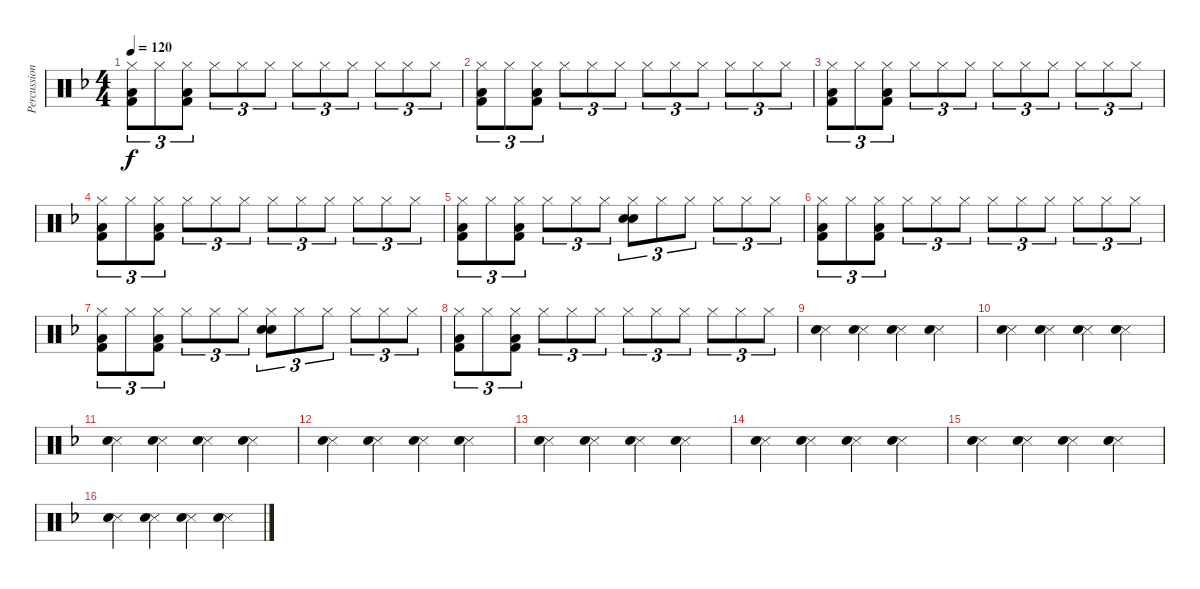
\track ("Percussion" "Percussion") {instrument percussion}
\staff {score}
\articulation defaults
\ts (4 4)
\tempo 120
\clef neutral
\ks dminor
("Hi-Hat (closed)" "Low Floor Tom (hit)" "Kick (hit) 2").8{tu (3 2) dy f} "Hi-Hat (closed)".8{tu (3 2)} ("Hi-Hat (closed)" "Low Floor Tom (hit)" "Kick (hit) 2").8{tu (3 2)} "Hi-Hat (closed)".8{tu (3 2)} "Hi-Hat (closed)".8{tu (3 2)} "Hi-Hat (closed)".8{tu (3 2)} "Hi-Hat (closed)".8{tu (3 2)} "Hi-Hat (closed)".8{tu (3 2)} "Hi-Hat (closed)".8{tu (3 2)} "Hi-Hat (closed)".8{tu (3 2)} "Hi-Hat (closed)".8{tu (3 2)} "Hi-Hat (closed)".8{tu (3 2)} |
("Hi-Hat (closed)" "Low Floor Tom (hit)" "Kick (hit) 2").8{tu (3 2)} "Hi-Hat (closed)".8{tu (3 2)} ("Hi-Hat (closed)" "Low Floor Tom (hit)" "Kick (hit) 2").8{tu (3 2)} "Hi-Hat (closed)".8{tu (3 2)} "Hi-Hat (closed)".8{tu (3 2)} "Hi-Hat (closed)".8{tu (3 2)} "Hi-Hat (closed)".8{tu (3 2)} "Hi-Hat (closed)".8{tu (3 2)} "Hi-Hat (closed)".8{tu (3 2)} "Hi-Hat (closed)".8{tu (3 2)} "Hi-Hat (closed)".8{tu (3 2)} "Hi-Hat (closed)".8{tu (3 2)} |
("Hi-Hat (closed)" "Low Floor Tom (hit)" "Kick (hit) 2").8{tu (3 2)} "Hi-Hat (closed)".8{tu (3 2)} ("Hi-Hat (closed)" "Low Floor Tom (hit)" "Kick (hit) 2").8{tu (3 2)} "Hi-Hat (closed)".8{tu (3 2)} "Hi-Hat (closed)".8{tu (3 2)} "Hi-Hat (closed)".8{tu (3 2)} "Hi-Hat (closed)".8{tu (3 2)} "Hi-Hat (closed)".8{tu (3 2)} "Hi-Hat (closed)".8{tu (3 2)} "Hi-Hat (closed)".8{tu (3 2)} "Hi-Hat (closed)".8{tu (3 2)} "Hi-Hat (closed)".8{tu (3 2)} |
("Hi-Hat (closed)" "Low Floor Tom (hit)" "Kick (hit) 2").8{tu (3 2)} "Hi-Hat (closed)".8{tu (3 2)} ("Hi-Hat (closed)" "Low Floor Tom (hit)" "Kick (hit) 2").8{tu (3 2)} "Hi-Hat (closed)".8{tu (3 2)} "Hi-Hat (closed)".8{tu (3 2)} "Hi-Hat (closed)".8{tu (3 2)} "Hi-Hat (closed)".8{tu (3 2)} "Hi-Hat (closed)".8{tu (3 2)} "Hi-Hat (closed)".8{tu (3 2)} "Hi-Hat (closed)".8{tu (3 2)} "Hi-Hat (closed)".8{tu (3 2)} "Hi-Hat (closed)".8{tu (3 2)} |
("Hi-Hat (closed)" "Low Floor Tom (hit)" "Kick (hit) 2").8{tu (3 2)} "Hi-Hat (closed)".8{tu (3 2)} ("Hi-Hat (closed)" "Low Floor Tom (hit)" "Kick (hit) 2").8{tu (3 2)} "Hi-Hat (closed)".8{tu (3 2)} "Hi-Hat (closed)".8{tu (3 2)} "Hi-Hat (closed)".8{tu (3 2)} ("Hi-Hat (closed)" "Snare (hit) 2" "Electric Snare (hit)").8{tu (3 2)} "Hi-Hat (closed)".8{tu (3 2)} "Hi-Hat (closed)".8{tu (3 2)} "Hi-Hat (closed)".8{tu (3 2)} "Hi-Hat (closed)".8{tu (3 2)} "Hi-Hat (closed)".8{tu (3 2)} |
("Hi-Hat (closed)" "Low Floor Tom (hit)" "Kick (hit) 2").8{tu (3 2)} "Hi-Hat (closed)".8{tu (3 2)} ("Hi-Hat (closed)" "Low Floor Tom (hit)" "Kick (hit) 2").8{tu (3 2)} "Hi-Hat (closed)".8{tu (3 2)} "Hi-Hat (closed)".8{tu (3 2)} "Hi-Hat (closed)".8{tu (3 2)} "Hi-Hat (closed)".8{tu (3 2)} "Hi-Hat (closed)".8{tu (3 2)} "Hi-Hat (closed)".8{tu (3 2)} "Hi-Hat (closed)".8{tu (3 2)} "Hi-Hat (closed)".8{tu (3 2)} "Hi-Hat (closed)".8{tu (3 2)} |
("Hi-Hat (closed)" "Low Floor Tom (hit)" "Kick (hit) 2").8{tu (3 2)} "Hi-Hat (closed)".8{tu (3 2)} ("Hi-Hat (closed)" "Low Floor Tom (hit)" "Kick (hit) 2").8{tu (3 2)} "Hi-Hat (closed)".8{tu (3 2)} "Hi-Hat (closed)".8{tu (3 2)} "Hi-Hat (closed)".8{tu (3 2)} ("Hi-Hat (closed)" "Snare (hit) 2" "Electric Snare (hit)").8{tu (3 2)} "Hi-Hat (closed)".8{tu (3 2)} "Hi-Hat (closed)".8{tu (3 2)} "Hi-Hat (closed)".8{tu (3 2)} "Hi-Hat (closed)".8{tu (3 2)} "Hi-Hat (closed)".8{tu (3 2)} |
("Hi-Hat (closed)" "Low Floor Tom (hit)" "Kick (hit) 2").8{tu (3 2)} "Hi-Hat (closed)".8{tu (3 2)} ("Hi-Hat (closed)" "Low Floor Tom (hit)" "Kick (hit) 2").8{tu (3 2)} "Hi-Hat (closed)".8{tu (3 2)} "Hi-Hat (closed)".8{tu (3 2)} "Hi-Hat (closed)".8{tu (3 2)} "Hi-Hat (closed)".8{tu (3 2)} "Hi-Hat (closed)".8{tu (3 2)} "Hi-Hat (closed)".8{tu (3 2)} "Hi-Hat (closed)".8{tu (3 2)} "Hi-Hat (closed)".8{tu (3 2)} "Hi-Hat (closed)".8{tu (3 2)} |
("Metronome (hit)" "Hand Clap (hit)").4 ("Metronome (hit)" "Hand Clap (hit)").4 ("Metronome (hit)" "Hand Clap (hit)").4 ("Metronome (hit)" "Hand Clap (hit)").4 |
("Metronome (hit)" "Hand Clap (hit)").4 ("Metronome (hit)" "Hand Clap (hit)").4 ("Metronome (hit)" "Hand Clap (hit)").4 ("Metronome (hit)" "Hand Clap (hit)").4 |
("Metronome (hit)" "Hand Clap (hit)").4 ("Metronome (hit)" "Hand Clap (hit)").4 ("Metronome (hit)" "Hand Clap (hit)").4 ("Metronome (hit)" "Hand Clap (hit)").4 |
("Metronome (hit)" "Hand Clap (hit)").4 ("Metronome (hit)" "Hand Clap (hit)").4 ("Metronome (hit)" "Hand Clap (hit)").4 ("Metronome (hit)" "Hand Clap (hit)").4 |
("Metronome (hit)" "Hand Clap (hit)").4 ("Metronome (hit)" "Hand Clap (hit)").4 ("Metronome (hit)" "Hand Clap (hit)").4 ("Metronome (hit)" "Hand Clap (hit)").4 |
("Metronome (hit)" "Hand Clap (hit)").4 ("Metronome (hit)" "Hand Clap (hit)").4 ("Metronome (hit)" "Hand Clap (hit)").4 ("Metronome (hit)" "Hand Clap (hit)").4 |
("Metronome (hit)" "Hand Clap (hit)").4 ("Metronome (hit)" "Hand Clap (hit)").4 ("Metronome (hit)" "Hand Clap (hit)").4 ("Metronome (hit)" "Hand Clap (hit)").4 |
("Metronome (hit)" "Hand Clap (hit)").4 ("Metronome (hit)" "Hand Clap (hit)").4 ("Metronome (hit)" "Hand Clap (hit)").4 ("Metronome (hit)" "Hand Clap (hit)").4
